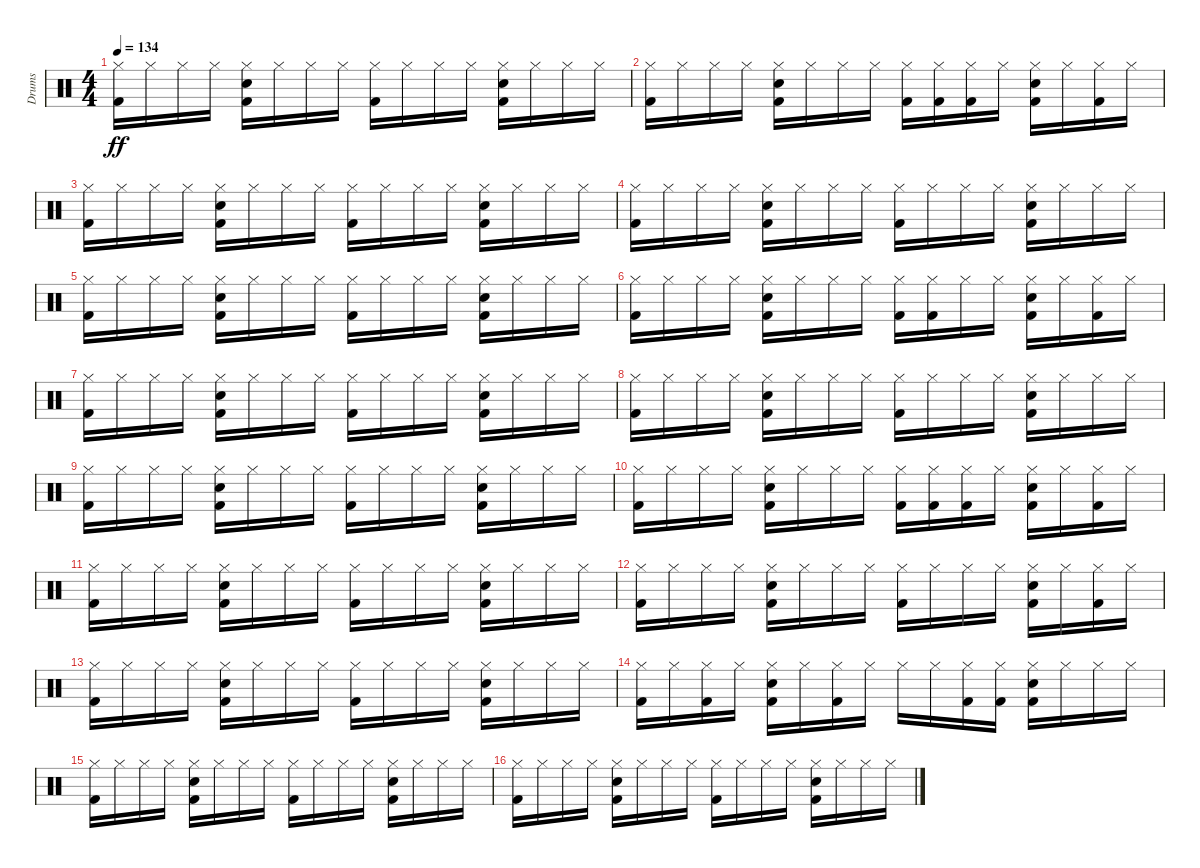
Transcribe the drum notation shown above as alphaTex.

\track ("Drums" "Drums") {instrument percussion}
\staff {score}
\articulation defaults
\ts (4 4)
\tempo 134
\clef neutral
\ks c
("Hi-Hat (closed)" "Kick (hit) 2").16{dy ff} "Hi-Hat (closed)".16 "Hi-Hat (closed)".16 "Hi-Hat (closed)".16 ("Hi-Hat (closed)" "Snare (hit) 2" "Kick (hit) 2").16 "Hi-Hat (closed)".16 "Hi-Hat (closed)".16 "Hi-Hat (closed)".16 ("Hi-Hat (closed)" "Kick (hit) 2").16 "Hi-Hat (closed)".16 "Hi-Hat (closed)".16 "Hi-Hat (closed)".16 ("Hi-Hat (closed)" "Snare (hit) 2" "Kick (hit) 2").16 "Hi-Hat (closed)".16 "Hi-Hat (closed)".16 "Hi-Hat (closed)".16 |
("Hi-Hat (closed)" "Kick (hit) 2").16 "Hi-Hat (closed)".16 "Hi-Hat (closed)".16 "Hi-Hat (closed)".16 ("Hi-Hat (closed)" "Snare (hit) 2" "Kick (hit) 2").16 "Hi-Hat (closed)".16 "Hi-Hat (closed)".16 "Hi-Hat (closed)".16 ("Hi-Hat (closed)" "Kick (hit) 2").16 ("Hi-Hat (closed)" "Kick (hit) 2").16 ("Hi-Hat (closed)" "Kick (hit) 2").16 "Hi-Hat (closed)".16 ("Hi-Hat (closed)" "Snare (hit) 2" "Kick (hit) 2").16 "Hi-Hat (closed)".16 ("Hi-Hat (closed)" "Kick (hit) 2").16 "Hi-Hat (closed)".16 |
("Hi-Hat (closed)" "Kick (hit) 2").16 "Hi-Hat (closed)".16 "Hi-Hat (closed)".16 "Hi-Hat (closed)".16 ("Hi-Hat (closed)" "Snare (hit) 2" "Kick (hit) 2").16 "Hi-Hat (closed)".16 "Hi-Hat (closed)".16 "Hi-Hat (closed)".16 ("Hi-Hat (closed)" "Kick (hit) 2").16 "Hi-Hat (closed)".16 "Hi-Hat (closed)".16 "Hi-Hat (closed)".16 ("Hi-Hat (closed)" "Snare (hit) 2" "Kick (hit) 2").16 "Hi-Hat (closed)".16 "Hi-Hat (closed)".16 "Hi-Hat (closed)".16 |
("Hi-Hat (closed)" "Kick (hit) 2").16 "Hi-Hat (closed)".16 "Hi-Hat (closed)".16 "Hi-Hat (closed)".16 ("Hi-Hat (closed)" "Snare (hit) 2" "Kick (hit) 2").16 "Hi-Hat (closed)".16 "Hi-Hat (closed)".16 "Hi-Hat (closed)".16 ("Hi-Hat (closed)" "Kick (hit) 2").16 "Hi-Hat (closed)".16 "Hi-Hat (closed)".16 "Hi-Hat (closed)".16 ("Hi-Hat (closed)" "Snare (hit) 2" "Kick (hit) 2").16 "Hi-Hat (closed)".16 "Hi-Hat (closed)".16 "Hi-Hat (closed)".16 |
("Hi-Hat (closed)" "Kick (hit) 2").16 "Hi-Hat (closed)".16 "Hi-Hat (closed)".16 "Hi-Hat (closed)".16 ("Hi-Hat (closed)" "Snare (hit) 2" "Kick (hit) 2").16 "Hi-Hat (closed)".16 "Hi-Hat (closed)".16 "Hi-Hat (closed)".16 ("Hi-Hat (closed)" "Kick (hit) 2").16 "Hi-Hat (closed)".16 "Hi-Hat (closed)".16 "Hi-Hat (closed)".16 ("Hi-Hat (closed)" "Snare (hit) 2" "Kick (hit) 2").16 "Hi-Hat (closed)".16 "Hi-Hat (closed)".16 "Hi-Hat (closed)".16 |
("Hi-Hat (closed)" "Kick (hit) 2").16 "Hi-Hat (closed)".16 "Hi-Hat (closed)".16 "Hi-Hat (closed)".16 ("Hi-Hat (closed)" "Snare (hit) 2" "Kick (hit) 2").16 "Hi-Hat (closed)".16 "Hi-Hat (closed)".16 "Hi-Hat (closed)".16 ("Hi-Hat (closed)" "Kick (hit) 2").16 ("Hi-Hat (closed)" "Kick (hit) 2").16 "Hi-Hat (closed)".16 "Hi-Hat (closed)".16 ("Hi-Hat (closed)" "Snare (hit) 2" "Kick (hit) 2").16 "Hi-Hat (closed)".16 ("Hi-Hat (closed)" "Kick (hit) 2").16 "Hi-Hat (closed)".16 |
("Hi-Hat (closed)" "Kick (hit) 2").16 "Hi-Hat (closed)".16 "Hi-Hat (closed)".16 "Hi-Hat (closed)".16 ("Hi-Hat (closed)" "Snare (hit) 2" "Kick (hit) 2").16 "Hi-Hat (closed)".16 "Hi-Hat (closed)".16 "Hi-Hat (closed)".16 ("Hi-Hat (closed)" "Kick (hit) 2").16 "Hi-Hat (closed)".16 "Hi-Hat (closed)".16 "Hi-Hat (closed)".16 ("Hi-Hat (closed)" "Snare (hit) 2" "Kick (hit) 2").16 "Hi-Hat (closed)".16 "Hi-Hat (closed)".16 "Hi-Hat (closed)".16 |
("Hi-Hat (closed)" "Kick (hit) 2").16 "Hi-Hat (closed)".16 "Hi-Hat (closed)".16 "Hi-Hat (closed)".16 ("Hi-Hat (closed)" "Snare (hit) 2" "Kick (hit) 2").16 "Hi-Hat (closed)".16 "Hi-Hat (closed)".16 "Hi-Hat (closed)".16 ("Hi-Hat (closed)" "Kick (hit) 2").16 "Hi-Hat (closed)".16 "Hi-Hat (closed)".16 "Hi-Hat (closed)".16 ("Hi-Hat (closed)" "Snare (hit) 2" "Kick (hit) 2").16 "Hi-Hat (closed)".16 "Hi-Hat (closed)".16 "Hi-Hat (closed)".16 |
("Hi-Hat (closed)" "Kick (hit) 2").16 "Hi-Hat (closed)".16 "Hi-Hat (closed)".16 "Hi-Hat (closed)".16 ("Hi-Hat (closed)" "Snare (hit) 2" "Kick (hit) 2").16 "Hi-Hat (closed)".16 "Hi-Hat (closed)".16 "Hi-Hat (closed)".16 ("Hi-Hat (closed)" "Kick (hit) 2").16 "Hi-Hat (closed)".16 "Hi-Hat (closed)".16 "Hi-Hat (closed)".16 ("Hi-Hat (closed)" "Snare (hit) 2" "Kick (hit) 2").16 "Hi-Hat (closed)".16 "Hi-Hat (closed)".16 "Hi-Hat (closed)".16 |
("Hi-Hat (closed)" "Kick (hit) 2").16 "Hi-Hat (closed)".16 "Hi-Hat (closed)".16 "Hi-Hat (closed)".16 ("Hi-Hat (closed)" "Snare (hit) 2" "Kick (hit) 2").16 "Hi-Hat (closed)".16 "Hi-Hat (closed)".16 "Hi-Hat (closed)".16 ("Hi-Hat (closed)" "Kick (hit) 2").16 ("Hi-Hat (closed)" "Kick (hit) 2").16 ("Hi-Hat (closed)" "Kick (hit) 2").16 "Hi-Hat (closed)".16 ("Hi-Hat (closed)" "Snare (hit) 2" "Kick (hit) 2").16 "Hi-Hat (closed)".16 ("Hi-Hat (closed)" "Kick (hit) 2").16 "Hi-Hat (closed)".16 |
("Hi-Hat (closed)" "Kick (hit) 2").16 "Hi-Hat (closed)".16 "Hi-Hat (closed)".16 "Hi-Hat (closed)".16 ("Hi-Hat (closed)" "Snare (hit) 2" "Kick (hit) 2").16 "Hi-Hat (closed)".16 "Hi-Hat (closed)".16 "Hi-Hat (closed)".16 ("Hi-Hat (closed)" "Kick (hit) 2").16 "Hi-Hat (closed)".16 "Hi-Hat (closed)".16 "Hi-Hat (closed)".16 ("Hi-Hat (closed)" "Snare (hit) 2" "Kick (hit) 2").16 "Hi-Hat (closed)".16 "Hi-Hat (closed)".16 "Hi-Hat (closed)".16 |
("Hi-Hat (closed)" "Kick (hit) 2").16 "Hi-Hat (closed)".16 "Hi-Hat (closed)".16 "Hi-Hat (closed)".16 ("Hi-Hat (closed)" "Snare (hit) 2" "Kick (hit) 2").16 "Hi-Hat (closed)".16 "Hi-Hat (closed)".16 "Hi-Hat (closed)".16 ("Hi-Hat (closed)" "Kick (hit) 2").16 "Hi-Hat (closed)".16 "Hi-Hat (closed)".16 "Hi-Hat (closed)".16 ("Hi-Hat (closed)" "Snare (hit) 2" "Kick (hit) 2").16 "Hi-Hat (closed)".16 ("Hi-Hat (closed)" "Kick (hit) 2").16 "Hi-Hat (closed)".16 |
("Hi-Hat (closed)" "Kick (hit) 2").16 "Hi-Hat (closed)".16 "Hi-Hat (closed)".16 "Hi-Hat (closed)".16 ("Hi-Hat (closed)" "Snare (hit) 2" "Kick (hit) 2").16 "Hi-Hat (closed)".16 "Hi-Hat (closed)".16 "Hi-Hat (closed)".16 ("Hi-Hat (closed)" "Kick (hit) 2").16 "Hi-Hat (closed)".16 "Hi-Hat (closed)".16 "Hi-Hat (closed)".16 ("Hi-Hat (closed)" "Snare (hit) 2" "Kick (hit) 2").16 "Hi-Hat (closed)".16 "Hi-Hat (closed)".16 "Hi-Hat (closed)".16 |
("Hi-Hat (closed)" "Kick (hit) 2").16 "Hi-Hat (closed)".16 ("Hi-Hat (closed)" "Kick (hit) 2").16 "Hi-Hat (closed)".16 ("Hi-Hat (closed)" "Snare (hit) 2" "Kick (hit) 2").16 "Hi-Hat (closed)".16 ("Hi-Hat (closed)" "Kick (hit) 2").16 "Hi-Hat (closed)".16 "Hi-Hat (closed)".16 "Hi-Hat (closed)".16 ("Hi-Hat (closed)" "Kick (hit) 2").16 ("Hi-Hat (closed)" "Kick (hit) 2").16 ("Hi-Hat (closed)" "Snare (hit) 2" "Kick (hit) 2").16 "Hi-Hat (closed)".16 "Hi-Hat (closed)".16 "Hi-Hat (closed)".16 |
("Hi-Hat (closed)" "Kick (hit) 2").16 "Hi-Hat (closed)".16 "Hi-Hat (closed)".16 "Hi-Hat (closed)".16 ("Hi-Hat (closed)" "Snare (hit) 2" "Kick (hit) 2").16 "Hi-Hat (closed)".16 "Hi-Hat (closed)".16 "Hi-Hat (closed)".16 ("Hi-Hat (closed)" "Kick (hit) 2").16 "Hi-Hat (closed)".16 "Hi-Hat (closed)".16 "Hi-Hat (closed)".16 ("Hi-Hat (closed)" "Snare (hit) 2" "Kick (hit) 2").16 "Hi-Hat (closed)".16 "Hi-Hat (closed)".16 "Hi-Hat (closed)".16 |
("Hi-Hat (closed)" "Kick (hit) 2").16 "Hi-Hat (closed)".16 "Hi-Hat (closed)".16 "Hi-Hat (closed)".16 ("Hi-Hat (closed)" "Snare (hit) 2" "Kick (hit) 2").16 "Hi-Hat (closed)".16 "Hi-Hat (closed)".16 "Hi-Hat (closed)".16 ("Hi-Hat (closed)" "Kick (hit) 2").16 "Hi-Hat (closed)".16 "Hi-Hat (closed)".16 "Hi-Hat (closed)".16 ("Hi-Hat (closed)" "Snare (hit) 2" "Kick (hit) 2").16 "Hi-Hat (closed)".16 "Hi-Hat (closed)".16 "Hi-Hat (closed)".16
